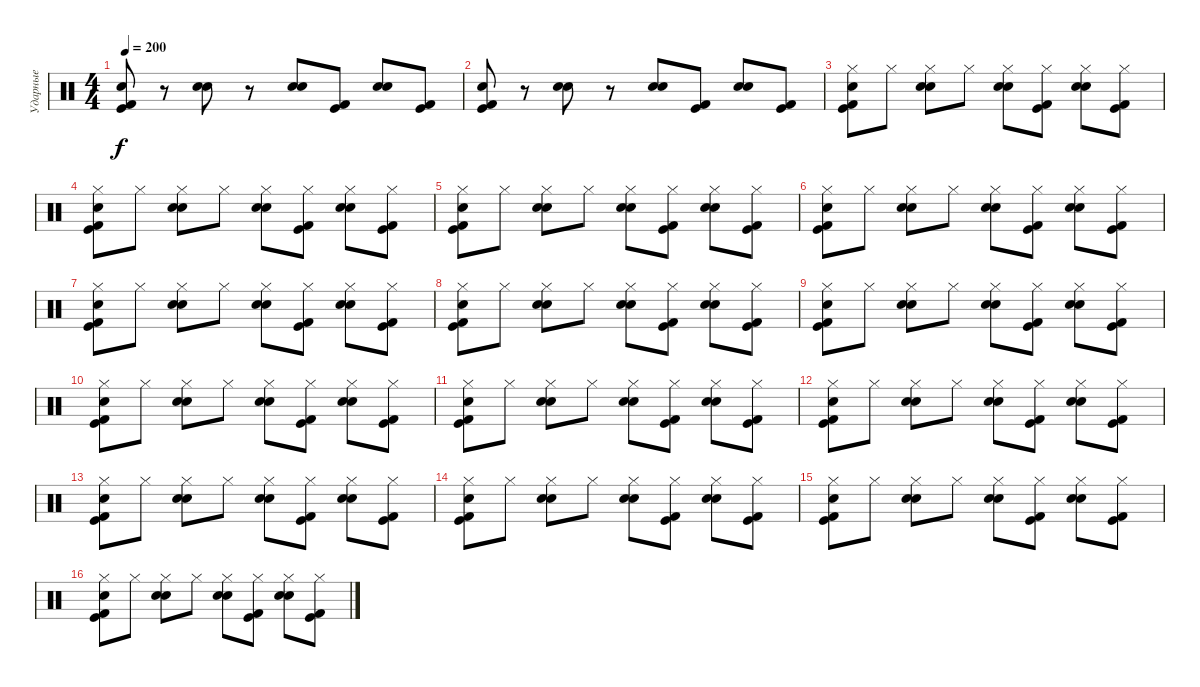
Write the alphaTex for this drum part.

\track ("Ударные" "Ударные") {instrument percussion}
\staff {score}
\articulation defaults
\ts (4 4)
\tempo 200
\clef neutral
\ks c
("Hand Clap (hit)" "Kick (hit) 2" "Kick (hit)").8{dy f} r.8 ("Hand Clap (hit)" "Electric Snare (hit)").8 r.8 ("Hand Clap (hit)" "Electric Snare (hit)").8 ("Kick (hit) 2" "Kick (hit)").8 ("Hand Clap (hit)" "Electric Snare (hit)").8 ("Kick (hit) 2" "Kick (hit)").8 |
("Hand Clap (hit)" "Kick (hit) 2" "Kick (hit)").8 r.8 ("Hand Clap (hit)" "Electric Snare (hit)").8 r.8 ("Hand Clap (hit)" "Electric Snare (hit)").8 ("Kick (hit) 2" "Kick (hit)").8 ("Hand Clap (hit)" "Electric Snare (hit)").8 ("Kick (hit) 2" "Kick (hit)").8 |
("Hi-Hat (closed)" "Hand Clap (hit)" "Kick (hit) 2" "Kick (hit)").8 "Hi-Hat (closed)".8 ("Hi-Hat (closed)" "Hand Clap (hit)" "Electric Snare (hit)").8 "Hi-Hat (closed)".8 ("Hi-Hat (closed)" "Hand Clap (hit)" "Electric Snare (hit)").8 ("Hi-Hat (closed)" "Kick (hit) 2" "Kick (hit)").8 ("Hi-Hat (closed)" "Hand Clap (hit)" "Electric Snare (hit)").8 ("Hi-Hat (closed)" "Kick (hit) 2" "Kick (hit)").8 |
("Hi-Hat (closed)" "Hand Clap (hit)" "Kick (hit) 2" "Kick (hit)").8 "Hi-Hat (closed)".8 ("Hi-Hat (closed)" "Hand Clap (hit)" "Electric Snare (hit)").8 "Hi-Hat (closed)".8 ("Hi-Hat (closed)" "Hand Clap (hit)" "Electric Snare (hit)").8 ("Hi-Hat (closed)" "Kick (hit) 2" "Kick (hit)").8 ("Hi-Hat (closed)" "Hand Clap (hit)" "Electric Snare (hit)").8 ("Hi-Hat (closed)" "Kick (hit) 2" "Kick (hit)").8 |
("Hi-Hat (closed)" "Hand Clap (hit)" "Kick (hit) 2" "Kick (hit)").8 "Hi-Hat (closed)".8 ("Hi-Hat (closed)" "Hand Clap (hit)" "Electric Snare (hit)").8 "Hi-Hat (closed)".8 ("Hi-Hat (closed)" "Hand Clap (hit)" "Electric Snare (hit)").8 ("Hi-Hat (closed)" "Kick (hit) 2" "Kick (hit)").8 ("Hi-Hat (closed)" "Hand Clap (hit)" "Electric Snare (hit)").8 ("Hi-Hat (closed)" "Kick (hit) 2" "Kick (hit)").8 |
("Hi-Hat (closed)" "Hand Clap (hit)" "Kick (hit) 2" "Kick (hit)").8 "Hi-Hat (closed)".8 ("Hi-Hat (closed)" "Hand Clap (hit)" "Electric Snare (hit)").8 "Hi-Hat (closed)".8 ("Hi-Hat (closed)" "Hand Clap (hit)" "Electric Snare (hit)").8 ("Hi-Hat (closed)" "Kick (hit) 2" "Kick (hit)").8 ("Hi-Hat (closed)" "Hand Clap (hit)" "Electric Snare (hit)").8 ("Hi-Hat (closed)" "Kick (hit) 2" "Kick (hit)").8 |
("Hi-Hat (closed)" "Hand Clap (hit)" "Kick (hit) 2" "Kick (hit)").8 "Hi-Hat (closed)".8 ("Hi-Hat (closed)" "Hand Clap (hit)" "Electric Snare (hit)").8 "Hi-Hat (closed)".8 ("Hi-Hat (closed)" "Hand Clap (hit)" "Electric Snare (hit)").8 ("Hi-Hat (closed)" "Kick (hit) 2" "Kick (hit)").8 ("Hi-Hat (closed)" "Hand Clap (hit)" "Electric Snare (hit)").8 ("Hi-Hat (closed)" "Kick (hit) 2" "Kick (hit)").8 |
("Hi-Hat (closed)" "Hand Clap (hit)" "Kick (hit) 2" "Kick (hit)").8 "Hi-Hat (closed)".8 ("Hi-Hat (closed)" "Hand Clap (hit)" "Electric Snare (hit)").8 "Hi-Hat (closed)".8 ("Hi-Hat (closed)" "Hand Clap (hit)" "Electric Snare (hit)").8 ("Hi-Hat (closed)" "Kick (hit) 2" "Kick (hit)").8 ("Hi-Hat (closed)" "Hand Clap (hit)" "Electric Snare (hit)").8 ("Hi-Hat (closed)" "Kick (hit) 2" "Kick (hit)").8 |
("Hi-Hat (closed)" "Hand Clap (hit)" "Kick (hit) 2" "Kick (hit)").8 "Hi-Hat (closed)".8 ("Hi-Hat (closed)" "Hand Clap (hit)" "Electric Snare (hit)").8 "Hi-Hat (closed)".8 ("Hi-Hat (closed)" "Hand Clap (hit)" "Electric Snare (hit)").8 ("Hi-Hat (closed)" "Kick (hit) 2" "Kick (hit)").8 ("Hi-Hat (closed)" "Hand Clap (hit)" "Electric Snare (hit)").8 ("Hi-Hat (closed)" "Kick (hit) 2" "Kick (hit)").8 |
("Hi-Hat (closed)" "Hand Clap (hit)" "Kick (hit) 2" "Kick (hit)").8 "Hi-Hat (closed)".8 ("Hi-Hat (closed)" "Hand Clap (hit)" "Electric Snare (hit)").8 "Hi-Hat (closed)".8 ("Hi-Hat (closed)" "Hand Clap (hit)" "Electric Snare (hit)").8 ("Hi-Hat (closed)" "Kick (hit) 2" "Kick (hit)").8 ("Hi-Hat (closed)" "Hand Clap (hit)" "Electric Snare (hit)").8 ("Hi-Hat (closed)" "Kick (hit) 2" "Kick (hit)").8 |
("Hi-Hat (closed)" "Hand Clap (hit)" "Kick (hit) 2" "Kick (hit)").8 "Hi-Hat (closed)".8 ("Hi-Hat (closed)" "Hand Clap (hit)" "Electric Snare (hit)").8 "Hi-Hat (closed)".8 ("Hi-Hat (closed)" "Hand Clap (hit)" "Electric Snare (hit)").8 ("Hi-Hat (closed)" "Kick (hit) 2" "Kick (hit)").8 ("Hi-Hat (closed)" "Hand Clap (hit)" "Electric Snare (hit)").8 ("Hi-Hat (closed)" "Kick (hit) 2" "Kick (hit)").8 |
("Hi-Hat (closed)" "Hand Clap (hit)" "Kick (hit) 2" "Kick (hit)").8 "Hi-Hat (closed)".8 ("Hi-Hat (closed)" "Hand Clap (hit)" "Electric Snare (hit)").8 "Hi-Hat (closed)".8 ("Hi-Hat (closed)" "Hand Clap (hit)" "Electric Snare (hit)").8 ("Hi-Hat (closed)" "Kick (hit) 2" "Kick (hit)").8 ("Hi-Hat (closed)" "Hand Clap (hit)" "Electric Snare (hit)").8 ("Hi-Hat (closed)" "Kick (hit) 2" "Kick (hit)").8 |
("Hi-Hat (closed)" "Hand Clap (hit)" "Kick (hit) 2" "Kick (hit)").8 "Hi-Hat (closed)".8 ("Hi-Hat (closed)" "Hand Clap (hit)" "Electric Snare (hit)").8 "Hi-Hat (closed)".8 ("Hi-Hat (closed)" "Hand Clap (hit)" "Electric Snare (hit)").8 ("Hi-Hat (closed)" "Kick (hit) 2" "Kick (hit)").8 ("Hi-Hat (closed)" "Hand Clap (hit)" "Electric Snare (hit)").8 ("Hi-Hat (closed)" "Kick (hit) 2" "Kick (hit)").8 |
("Hi-Hat (closed)" "Hand Clap (hit)" "Kick (hit) 2" "Kick (hit)").8 "Hi-Hat (closed)".8 ("Hi-Hat (closed)" "Hand Clap (hit)" "Electric Snare (hit)").8 "Hi-Hat (closed)".8 ("Hi-Hat (closed)" "Hand Clap (hit)" "Electric Snare (hit)").8 ("Hi-Hat (closed)" "Kick (hit) 2" "Kick (hit)").8 ("Hi-Hat (closed)" "Hand Clap (hit)" "Electric Snare (hit)").8 ("Hi-Hat (closed)" "Kick (hit) 2" "Kick (hit)").8 |
("Hi-Hat (closed)" "Hand Clap (hit)" "Kick (hit) 2" "Kick (hit)").8 "Hi-Hat (closed)".8 ("Hi-Hat (closed)" "Hand Clap (hit)" "Electric Snare (hit)").8 "Hi-Hat (closed)".8 ("Hi-Hat (closed)" "Hand Clap (hit)" "Electric Snare (hit)").8 ("Hi-Hat (closed)" "Kick (hit) 2" "Kick (hit)").8 ("Hi-Hat (closed)" "Hand Clap (hit)" "Electric Snare (hit)").8 ("Hi-Hat (closed)" "Kick (hit) 2" "Kick (hit)").8 |
("Hi-Hat (closed)" "Hand Clap (hit)" "Kick (hit) 2" "Kick (hit)").8 "Hi-Hat (closed)".8 ("Hi-Hat (closed)" "Hand Clap (hit)" "Electric Snare (hit)").8 "Hi-Hat (closed)".8 ("Hi-Hat (closed)" "Hand Clap (hit)" "Electric Snare (hit)").8 ("Hi-Hat (closed)" "Kick (hit) 2" "Kick (hit)").8 ("Hi-Hat (closed)" "Hand Clap (hit)" "Electric Snare (hit)").8 ("Hi-Hat (closed)" "Kick (hit) 2" "Kick (hit)").8
